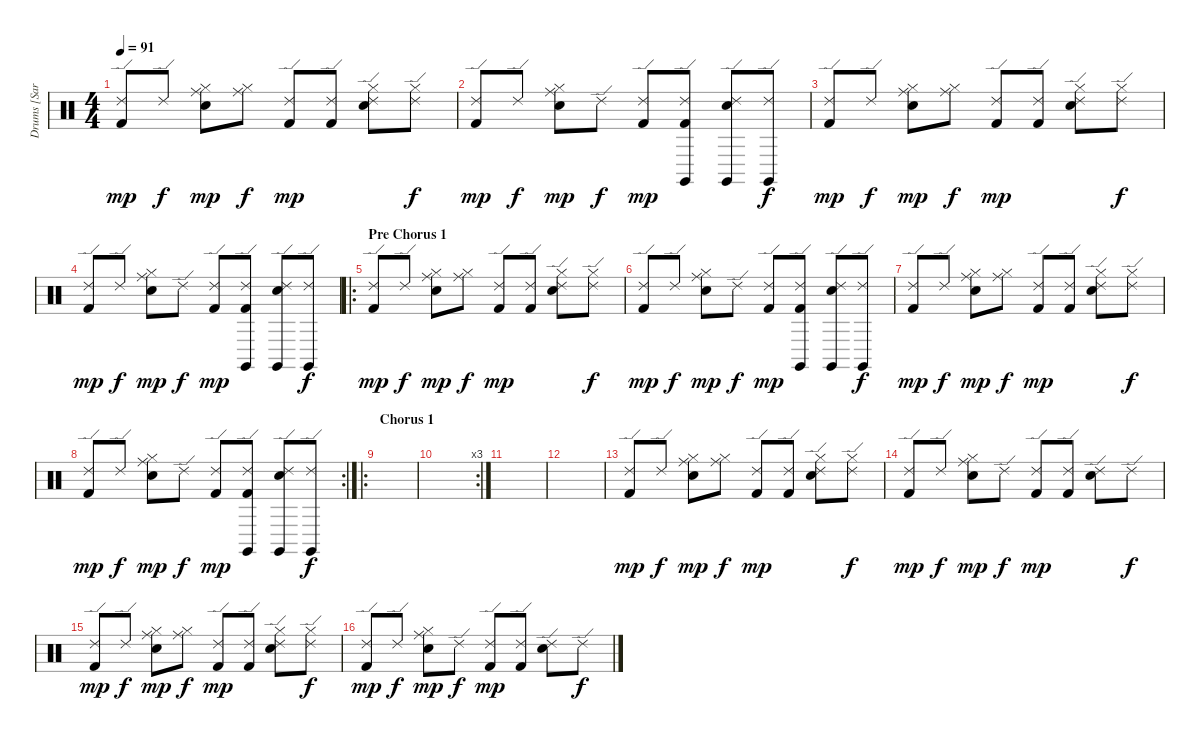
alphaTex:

\track ("Drums [Sara Lee Lucas]" "Drums [Sar") {instrument percussion}
\staff {score}
\articulation defaults
\ts (4 4)
\tempo 91
\clef neutral
\ks c
("Ride (edge) 2" "Kick (hit) 2").8{dy mp} "Ride (edge) 2".8{dy f} ("Ride (middle)" "Hi-Hat (closed)" "Snare (hit) 2").8{dy mp} ("Ride (middle)" "Hi-Hat (closed)").8{dy f} ("Ride (edge) 2" "Kick (hit) 2").8{dy mp} ("Ride (edge) 2" "Kick (hit) 2").8 ("Ride (edge) 2" "Hi-Hat (closed)" "Snare (hit) 2").8 ("Ride (edge) 2" "Hi-Hat (closed)").8{dy f} |
("Ride (edge) 2" "Kick (hit) 2").8{dy mp} "Ride (edge) 2".8{dy f} ("Ride (middle)" "Hi-Hat (closed)" "Snare (hit) 2").8{dy mp} "Ride (edge) 2".8{dy f} ("Ride (edge) 2" "Kick (hit) 2").8{dy mp} ("Ride (edge) 2" "Claves (hit)" "Kick (hit) 2").8 ("Ride (edge) 2" "Claves (hit)" "Snare (hit) 2").8 ("Ride (edge) 2" "Claves (hit)").8{dy f} |
("Ride (edge) 2" "Kick (hit) 2").8{dy mp} "Ride (edge) 2".8{dy f} ("Ride (middle)" "Hi-Hat (closed)" "Snare (hit) 2").8{dy mp} ("Ride (middle)" "Hi-Hat (closed)").8{dy f} ("Ride (edge) 2" "Kick (hit) 2").8{dy mp} ("Ride (edge) 2" "Kick (hit) 2").8 ("Ride (edge) 2" "Hi-Hat (closed)" "Snare (hit) 2").8 ("Ride (edge) 2" "Hi-Hat (closed)").8{dy f} |
("Ride (edge) 2" "Kick (hit) 2").8{dy mp} "Ride (edge) 2".8{dy f} ("Ride (middle)" "Hi-Hat (closed)" "Snare (hit) 2").8{dy mp} "Ride (edge) 2".8{dy f} ("Ride (edge) 2" "Kick (hit) 2").8{dy mp} ("Ride (edge) 2" "Claves (hit)" "Kick (hit) 2").8 ("Ride (edge) 2" "Claves (hit)" "Snare (hit) 2").8 ("Ride (edge) 2" "Claves (hit)").8{dy f} |
\ro
\section ("" "Pre Chorus 1")
("Ride (edge) 2" "Kick (hit) 2").8{dy mp} "Ride (edge) 2".8{dy f} ("Ride (middle)" "Hi-Hat (closed)" "Snare (hit) 2").8{dy mp} ("Ride (middle)" "Hi-Hat (closed)").8{dy f} ("Ride (edge) 2" "Kick (hit) 2").8{dy mp} ("Ride (edge) 2" "Kick (hit) 2").8 ("Ride (edge) 2" "Hi-Hat (closed)" "Snare (hit) 2").8 ("Ride (edge) 2" "Hi-Hat (closed)").8{dy f} |
("Ride (edge) 2" "Kick (hit) 2").8{dy mp} "Ride (edge) 2".8{dy f} ("Ride (middle)" "Hi-Hat (closed)" "Snare (hit) 2").8{dy mp} "Ride (edge) 2".8{dy f} ("Ride (edge) 2" "Kick (hit) 2").8{dy mp} ("Ride (edge) 2" "Claves (hit)" "Kick (hit) 2").8 ("Ride (edge) 2" "Claves (hit)" "Snare (hit) 2").8 ("Ride (edge) 2" "Claves (hit)").8{dy f} |
("Ride (edge) 2" "Kick (hit) 2").8{dy mp} "Ride (edge) 2".8{dy f} ("Ride (middle)" "Hi-Hat (closed)" "Snare (hit) 2").8{dy mp} ("Ride (middle)" "Hi-Hat (closed)").8{dy f} ("Ride (edge) 2" "Kick (hit) 2").8{dy mp} ("Ride (edge) 2" "Kick (hit) 2").8 ("Ride (edge) 2" "Hi-Hat (closed)" "Snare (hit) 2").8 ("Ride (edge) 2" "Hi-Hat (closed)").8{dy f} |
\rc 2
("Ride (edge) 2" "Kick (hit) 2").8{dy mp} "Ride (edge) 2".8{dy f} ("Ride (middle)" "Hi-Hat (closed)" "Snare (hit) 2").8{dy mp} "Ride (edge) 2".8{dy f} ("Ride (edge) 2" "Kick (hit) 2").8{dy mp} ("Ride (edge) 2" "Claves (hit)" "Kick (hit) 2").8 ("Ride (edge) 2" "Claves (hit)" "Snare (hit) 2").8 ("Ride (edge) 2" "Claves (hit)").8{dy f} |
\ro
\section ("" "Chorus 1")
|
\rc 3
|
|
|
("Ride (edge) 2" "Kick (hit) 2").8{dy mp} "Ride (edge) 2".8{dy f} ("Ride (middle)" "Hi-Hat (closed)" "Snare (hit) 2").8{dy mp} ("Ride (middle)" "Hi-Hat (closed)").8{dy f} ("Ride (edge) 2" "Kick (hit) 2").8{dy mp} ("Ride (edge) 2" "Kick (hit) 2").8 ("Ride (edge) 2" "Hi-Hat (closed)" "Snare (hit) 2").8 ("Ride (edge) 2" "Hi-Hat (closed)").8{dy f} |
("Ride (edge) 2" "Kick (hit) 2").8{dy mp} "Ride (edge) 2".8{dy f} ("Ride (middle)" "Hi-Hat (closed)" "Snare (hit) 2").8{dy mp} "Ride (edge) 2".8{dy f} ("Ride (edge) 2" "Kick (hit) 2").8{dy mp} ("Ride (edge) 2" "Kick (hit) 2").8 ("Ride (edge) 2" "Snare (hit) 2").8 "Ride (edge) 2".8{dy f} |
("Ride (edge) 2" "Kick (hit) 2").8{dy mp} "Ride (edge) 2".8{dy f} ("Ride (middle)" "Hi-Hat (closed)" "Snare (hit) 2").8{dy mp} ("Ride (middle)" "Hi-Hat (closed)").8{dy f} ("Ride (edge) 2" "Kick (hit) 2").8{dy mp} ("Ride (edge) 2" "Kick (hit) 2").8 ("Ride (edge) 2" "Hi-Hat (closed)" "Snare (hit) 2").8 ("Ride (edge) 2" "Hi-Hat (closed)").8{dy f} |
("Ride (edge) 2" "Kick (hit) 2").8{dy mp} "Ride (edge) 2".8{dy f} ("Ride (middle)" "Hi-Hat (closed)" "Snare (hit) 2").8{dy mp} "Ride (edge) 2".8{dy f} ("Ride (edge) 2" "Kick (hit) 2").8{dy mp} ("Ride (edge) 2" "Kick (hit) 2").8 ("Ride (edge) 2" "Snare (hit) 2").8 "Ride (edge) 2".8{dy f}
